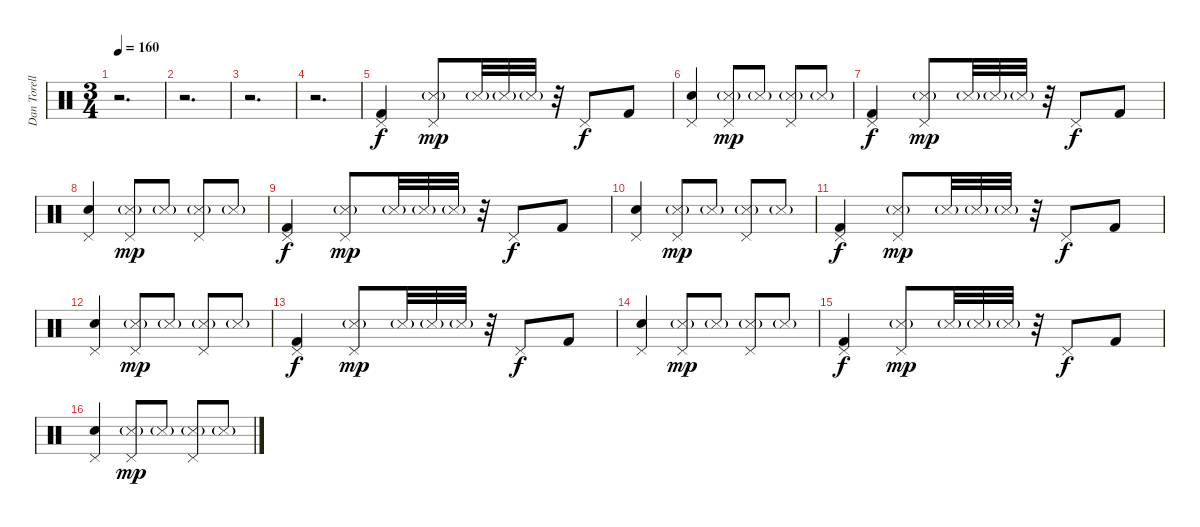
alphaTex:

\track ("Dan Torelli - Drums" "Dan Torell") {instrument percussion}
\staff {score}
\articulation defaults
\ts (3 4)
\tempo 160
\clef neutral
\ks c
r.2{d dy f} |
r.2{d} |
r.2{d} |
r.2{d} |
("Pedal Hi-Hat (hit)" "Kick (hit) 2").4 ("Pedal Hi-Hat (hit)" "Snare (side stick) 3"{g}).8{dy mp} "Snare (side stick) 3"{g}.32 "Snare (side stick) 3"{g}.32 "Snare (side stick) 3"{g}.32 r.32 "Pedal Hi-Hat (hit)".8{dy f} "Kick (hit) 2".8 |
("Pedal Hi-Hat (hit)" "Electric Snare (hit)").4 ("Pedal Hi-Hat (hit)" "Snare (side stick) 3"{g}).8{dy mp} "Snare (side stick) 3"{g}.8 ("Pedal Hi-Hat (hit)" "Snare (side stick) 3"{g}).8 "Snare (side stick) 3"{g}.8 |
("Pedal Hi-Hat (hit)" "Kick (hit) 2").4{dy f} ("Pedal Hi-Hat (hit)" "Snare (side stick) 3"{g}).8{dy mp} "Snare (side stick) 3"{g}.32 "Snare (side stick) 3"{g}.32 "Snare (side stick) 3"{g}.32 r.32 "Pedal Hi-Hat (hit)".8{dy f} "Kick (hit) 2".8 |
("Pedal Hi-Hat (hit)" "Electric Snare (hit)").4 ("Pedal Hi-Hat (hit)" "Snare (side stick) 3"{g}).8{dy mp} "Snare (side stick) 3"{g}.8 ("Pedal Hi-Hat (hit)" "Snare (side stick) 3"{g}).8 "Snare (side stick) 3"{g}.8 |
("Pedal Hi-Hat (hit)" "Kick (hit) 2").4{dy f} ("Pedal Hi-Hat (hit)" "Snare (side stick) 3"{g}).8{dy mp} "Snare (side stick) 3"{g}.32 "Snare (side stick) 3"{g}.32 "Snare (side stick) 3"{g}.32 r.32 "Pedal Hi-Hat (hit)".8{dy f} "Kick (hit) 2".8 |
("Pedal Hi-Hat (hit)" "Electric Snare (hit)").4 ("Pedal Hi-Hat (hit)" "Snare (side stick) 3"{g}).8{dy mp} "Snare (side stick) 3"{g}.8 ("Pedal Hi-Hat (hit)" "Snare (side stick) 3"{g}).8 "Snare (side stick) 3"{g}.8 |
("Pedal Hi-Hat (hit)" "Kick (hit) 2").4{dy f} ("Pedal Hi-Hat (hit)" "Snare (side stick) 3"{g}).8{dy mp} "Snare (side stick) 3"{g}.32 "Snare (side stick) 3"{g}.32 "Snare (side stick) 3"{g}.32 r.32 "Pedal Hi-Hat (hit)".8{dy f} "Kick (hit) 2".8 |
("Pedal Hi-Hat (hit)" "Electric Snare (hit)").4 ("Pedal Hi-Hat (hit)" "Snare (side stick) 3"{g}).8{dy mp} "Snare (side stick) 3"{g}.8 ("Pedal Hi-Hat (hit)" "Snare (side stick) 3"{g}).8 "Snare (side stick) 3"{g}.8 |
("Pedal Hi-Hat (hit)" "Kick (hit) 2").4{dy f} ("Pedal Hi-Hat (hit)" "Snare (side stick) 3"{g}).8{dy mp} "Snare (side stick) 3"{g}.32 "Snare (side stick) 3"{g}.32 "Snare (side stick) 3"{g}.32 r.32 "Pedal Hi-Hat (hit)".8{dy f} "Kick (hit) 2".8 |
("Pedal Hi-Hat (hit)" "Electric Snare (hit)").4 ("Pedal Hi-Hat (hit)" "Snare (side stick) 3"{g}).8{dy mp} "Snare (side stick) 3"{g}.8 ("Pedal Hi-Hat (hit)" "Snare (side stick) 3"{g}).8 "Snare (side stick) 3"{g}.8 |
("Pedal Hi-Hat (hit)" "Kick (hit) 2").4{dy f} ("Pedal Hi-Hat (hit)" "Snare (side stick) 3"{g}).8{dy mp} "Snare (side stick) 3"{g}.32 "Snare (side stick) 3"{g}.32 "Snare (side stick) 3"{g}.32 r.32 "Pedal Hi-Hat (hit)".8{dy f} "Kick (hit) 2".8 |
("Pedal Hi-Hat (hit)" "Electric Snare (hit)").4 ("Pedal Hi-Hat (hit)" "Snare (side stick) 3"{g}).8{dy mp} "Snare (side stick) 3"{g}.8 ("Pedal Hi-Hat (hit)" "Snare (side stick) 3"{g}).8 "Snare (side stick) 3"{g}.8
